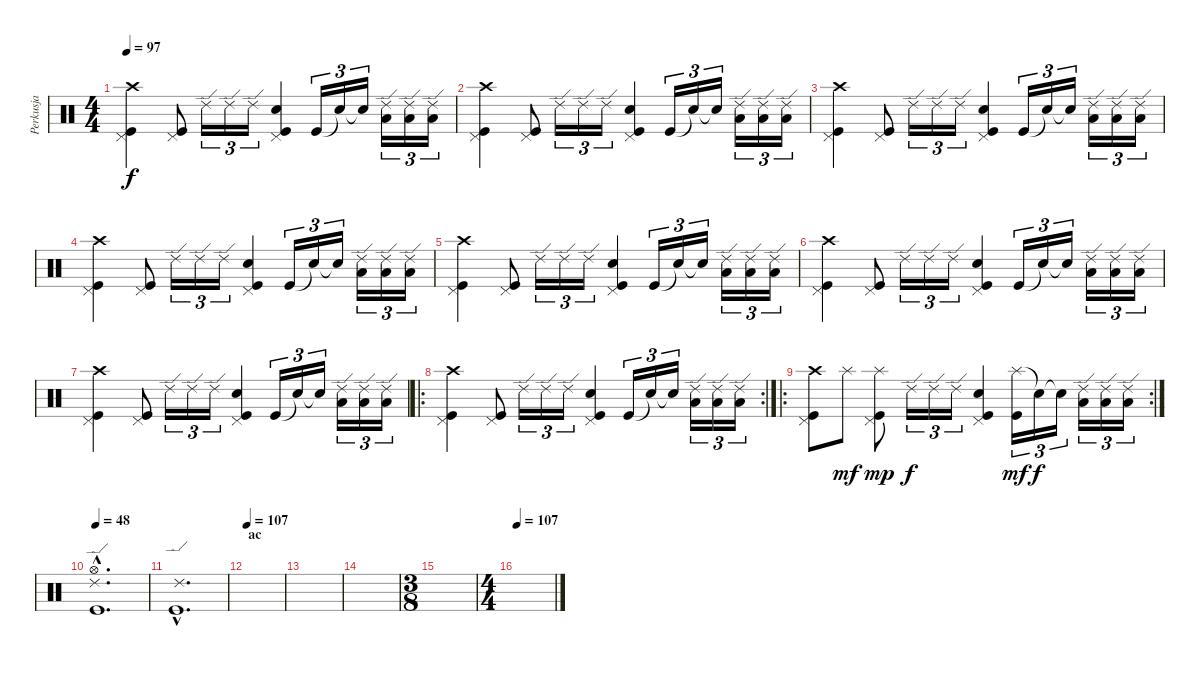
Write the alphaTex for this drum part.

\track ("Perkusja" "Perkusja") {instrument percussion}
\staff {score}
\articulation defaults
\ts (4 4)
\tempo 97
\clef neutral
\ks c
("Crash high (hit)" "Pedal Hi-Hat (hit)" "Kick (hit)").4{dy f} ("Pedal Hi-Hat (hit)" "Kick (hit)").8 "Ride (edge) 2".16{tu (3 2)} "Ride (edge) 2".16{tu (3 2)} "Ride (edge) 2".16{tu (3 2)} ("Electric Snare (hit)" "Pedal Hi-Hat (hit)" "Kick (hit)").4 "Kick (hit)".16{tu (3 2)} "Snare (hit)"{t}.16{tu (3 2)} "Snare (hit)"{t}.16{tu (3 2)} ("Ride (edge) 2" "Low Floor Tom (hit)").16{tu (3 2)} ("Ride (edge) 2" "Low Floor Tom (hit)").16{tu (3 2)} ("Ride (edge) 2" "Low Floor Tom (hit)").16{tu (3 2)} |
("Crash high (hit)" "Pedal Hi-Hat (hit)" "Kick (hit)").4 ("Pedal Hi-Hat (hit)" "Kick (hit)").8 "Ride (edge) 2".16{tu (3 2)} "Ride (edge) 2".16{tu (3 2)} "Ride (edge) 2".16{tu (3 2)} ("Electric Snare (hit)" "Pedal Hi-Hat (hit)" "Kick (hit)").4 "Kick (hit)".16{tu (3 2)} "Snare (hit)"{t}.16{tu (3 2)} "Snare (hit)"{t}.16{tu (3 2)} ("Ride (edge) 2" "Low Floor Tom (hit)").16{tu (3 2)} ("Ride (edge) 2" "Low Floor Tom (hit)").16{tu (3 2)} ("Ride (edge) 2" "Low Floor Tom (hit)").16{tu (3 2)} |
("Crash high (hit)" "Pedal Hi-Hat (hit)" "Kick (hit)").4 ("Pedal Hi-Hat (hit)" "Kick (hit)").8 "Ride (edge) 2".16{tu (3 2)} "Ride (edge) 2".16{tu (3 2)} "Ride (edge) 2".16{tu (3 2)} ("Electric Snare (hit)" "Pedal Hi-Hat (hit)" "Kick (hit)").4 "Kick (hit)".16{tu (3 2)} "Snare (hit)"{t}.16{tu (3 2)} "Snare (hit)"{t}.16{tu (3 2)} ("Ride (edge) 2" "Low Floor Tom (hit)").16{tu (3 2)} ("Ride (edge) 2" "Low Floor Tom (hit)").16{tu (3 2)} ("Ride (edge) 2" "Low Floor Tom (hit)").16{tu (3 2)} |
("Crash high (hit)" "Pedal Hi-Hat (hit)" "Kick (hit)").4 ("Pedal Hi-Hat (hit)" "Kick (hit)").8 "Ride (edge) 2".16{tu (3 2)} "Ride (edge) 2".16{tu (3 2)} "Ride (edge) 2".16{tu (3 2)} ("Electric Snare (hit)" "Pedal Hi-Hat (hit)" "Kick (hit)").4 "Kick (hit)".16{tu (3 2)} "Snare (hit)"{t}.16{tu (3 2)} "Snare (hit)"{t}.16{tu (3 2)} ("Ride (edge) 2" "Low Floor Tom (hit)").16{tu (3 2)} ("Ride (edge) 2" "Low Floor Tom (hit)").16{tu (3 2)} ("Ride (edge) 2" "Low Floor Tom (hit)").16{tu (3 2)} |
("Crash high (hit)" "Pedal Hi-Hat (hit)" "Kick (hit)").4 ("Pedal Hi-Hat (hit)" "Kick (hit)").8 "Ride (edge) 2".16{tu (3 2)} "Ride (edge) 2".16{tu (3 2)} "Ride (edge) 2".16{tu (3 2)} ("Electric Snare (hit)" "Pedal Hi-Hat (hit)" "Kick (hit)").4 "Kick (hit)".16{tu (3 2)} "Snare (hit)"{t}.16{tu (3 2)} "Snare (hit)"{t}.16{tu (3 2)} ("Ride (edge) 2" "Low Floor Tom (hit)").16{tu (3 2)} ("Ride (edge) 2" "Low Floor Tom (hit)").16{tu (3 2)} ("Ride (edge) 2" "Low Floor Tom (hit)").16{tu (3 2)} |
("Crash high (hit)" "Pedal Hi-Hat (hit)" "Kick (hit)").4 ("Pedal Hi-Hat (hit)" "Kick (hit)").8 "Ride (edge) 2".16{tu (3 2)} "Ride (edge) 2".16{tu (3 2)} "Ride (edge) 2".16{tu (3 2)} ("Electric Snare (hit)" "Pedal Hi-Hat (hit)" "Kick (hit)").4 "Kick (hit)".16{tu (3 2)} "Snare (hit)"{t}.16{tu (3 2)} "Snare (hit)"{t}.16{tu (3 2)} ("Ride (edge) 2" "Low Floor Tom (hit)").16{tu (3 2)} ("Ride (edge) 2" "Low Floor Tom (hit)").16{tu (3 2)} ("Ride (edge) 2" "Low Floor Tom (hit)").16{tu (3 2)} |
("Crash high (hit)" "Pedal Hi-Hat (hit)" "Kick (hit)").4 ("Pedal Hi-Hat (hit)" "Kick (hit)").8 "Ride (edge) 2".16{tu (3 2)} "Ride (edge) 2".16{tu (3 2)} "Ride (edge) 2".16{tu (3 2)} ("Electric Snare (hit)" "Pedal Hi-Hat (hit)" "Kick (hit)").4 "Kick (hit)".16{tu (3 2)} "Snare (hit)"{t}.16{tu (3 2)} "Snare (hit)"{t}.16{tu (3 2)} ("Ride (edge) 2" "Low Floor Tom (hit)").16{tu (3 2)} ("Ride (edge) 2" "Low Floor Tom (hit)").16{tu (3 2)} ("Ride (edge) 2" "Low Floor Tom (hit)").16{tu (3 2)} |
\ro
\rc 2
("Crash high (hit)" "Pedal Hi-Hat (hit)" "Kick (hit)").4 ("Pedal Hi-Hat (hit)" "Kick (hit)").8 "Ride (edge) 2".16{tu (3 2)} "Ride (edge) 2".16{tu (3 2)} "Ride (edge) 2".16{tu (3 2)} ("Electric Snare (hit)" "Pedal Hi-Hat (hit)" "Kick (hit)").4 "Kick (hit)".16{tu (3 2)} "Snare (hit)"{t}.16{tu (3 2)} "Snare (hit)"{t}.16{tu (3 2)} ("Ride (edge) 2" "Low Floor Tom (hit)").16{tu (3 2)} ("Ride (edge) 2" "Low Floor Tom (hit)").16{tu (3 2)} ("Ride (edge) 2" "Low Floor Tom (hit)").16{tu (3 2)} |
\ro
\rc 2
("Crash high (hit)" "Pedal Hi-Hat (hit)" "Kick (hit)").8 "Splash (hit)".8{dy mf} ("Splash (hit)" "Pedal Hi-Hat (hit)" "Kick (hit)").8{dy mp} "Ride (edge) 2".16{tu (3 2) dy f} "Ride (edge) 2".16{tu (3 2)} "Ride (edge) 2".16{tu (3 2)} ("Electric Snare (hit)" "Pedal Hi-Hat (hit)" "Kick (hit)").4 ("Splash (hit)" "Kick (hit)").16{tu (3 2) dy mf} "Snare (hit)"{t}.16{tu (3 2) dy f} "Snare (hit)"{t}.16{tu (3 2)} ("Ride (edge) 2" "Low Floor Tom (hit)").16{tu (3 2)} ("Ride (edge) 2" "Low Floor Tom (hit)").16{tu (3 2)} ("Ride (edge) 2" "Low Floor Tom (hit)").16{tu (3 2)} |
\tempo 48
("Hi-Hat (open)"{hac} "Ride (edge) 2"{hac} "Kick (hit)"{hac}).1{d} |
("Ride (edge) 2"{hac} "Kick (hit)"{hac}).1{d} |
\section ("" "ac")
\tempo 107
|
|
|
\ts (3 8)
|
\ts (4 4)
\tempo 107
